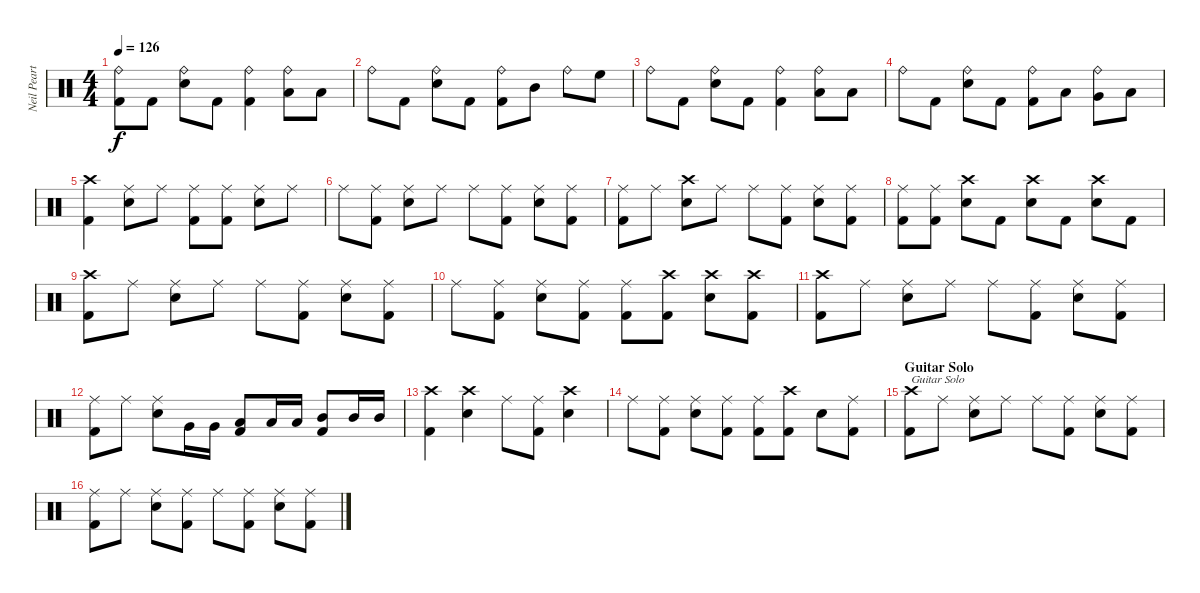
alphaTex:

\track ("Neil Peart" "Neil Peart") {instrument percussion}
\staff {score}
\articulation defaults
\ts (4 4)
\tempo 126
\clef neutral
\ks c
("Ride (bell)" "Kick (hit) 2").8{dy f} "Kick (hit) 2".8 ("Electric Snare (hit)" "Ride (bell)").8 "Kick (hit) 2".8 ("Ride (bell)" "Kick (hit) 2").4 ("Ride (bell)" "Low Floor Tom (hit)").8 "Low Floor Tom (hit)".8 |
"Ride (bell)".8 "Kick (hit) 2".8 ("Electric Snare (hit)" "Ride (bell)").8 "Kick (hit) 2".8 ("Ride (bell)" "Kick (hit) 2").8 "Mid Tom (hit)".8 "Ride (bell)".8 "High Floor Tom (hit)".8 |
"Ride (bell)".8 "Kick (hit) 2".8 ("Electric Snare (hit)" "Ride (bell)").8 "Kick (hit) 2".8 ("Ride (bell)" "Kick (hit) 2").4 ("Ride (bell)" "Low Floor Tom (hit)").8 "Low Floor Tom (hit)".8 |
"Ride (bell)".8 "Kick (hit) 2".8 ("Electric Snare (hit)" "Ride (bell)").8 "Kick (hit) 2".8 ("Ride (bell)" "Kick (hit) 2").8 "Low Floor Tom (hit)".8 ("Ride (bell)" "Very Low Tom (hit)").8 "Low Tom (hit)".8 |
("Crash high (hit)" "Kick (hit) 2").4 ("Electric Snare (hit)" "Ride (middle)").8 "Ride (middle)".8 ("Ride (middle)" "Kick (hit) 2").8 ("Ride (middle)" "Kick (hit) 2").8 ("Electric Snare (hit)" "Ride (middle)").8 "Ride (middle)".8 |
"Ride (middle)".8 ("Ride (middle)" "Kick (hit) 2").8 ("Electric Snare (hit)" "Ride (middle)").8 "Ride (middle)".8 "Ride (middle)".8 ("Ride (middle)" "Kick (hit) 2").8 ("Electric Snare (hit)" "Ride (middle)").8 ("Ride (middle)" "Kick (hit) 2").8 |
("Ride (middle)" "Kick (hit) 2").8 "Ride (middle)".8 ("Electric Snare (hit)" "Crash high (hit)").8 "Ride (middle)".8 "Ride (middle)".8 ("Ride (middle)" "Kick (hit) 2").8 ("Electric Snare (hit)" "Ride (middle)").8 ("Ride (middle)" "Kick (hit) 2").8 |
("Ride (middle)" "Kick (hit) 2").8 ("Ride (middle)" "Kick (hit) 2").8 ("Electric Snare (hit)" "Crash high (hit)").8 "Kick (hit) 2".8 ("Electric Snare (hit)" "Crash high (hit)").8 "Kick (hit) 2".8 ("Electric Snare (hit)" "Crash high (hit)").8 "Kick (hit) 2".8 |
("Crash high (hit)" "Kick (hit) 2").8 "Ride (middle)".8 ("Electric Snare (hit)" "Ride (middle)").8 "Ride (middle)".8 "Ride (middle)".8 ("Ride (middle)" "Kick (hit) 2").8 ("Electric Snare (hit)" "Ride (middle)").8 ("Ride (middle)" "Kick (hit) 2").8 |
"Ride (middle)".8 ("Ride (middle)" "Kick (hit) 2").8 ("Electric Snare (hit)" "Ride (middle)").8 ("Ride (middle)" "Kick (hit) 2").8 ("Ride (middle)" "Kick (hit) 2").8 ("Crash high (hit)" "Kick (hit) 2").8 ("Electric Snare (hit)" "Crash high (hit)").8 ("Crash high (hit)" "Kick (hit) 2").8 |
("Crash high (hit)" "Kick (hit) 2").8 "Ride (middle)".8 ("Electric Snare (hit)" "Ride (middle)").8 "Ride (middle)".8 "Ride (middle)".8 ("Ride (middle)" "Kick (hit) 2").8 ("Electric Snare (hit)" "Ride (middle)").8 ("Ride (middle)" "Kick (hit) 2").8 |
("Ride (middle)" "Kick (hit) 2").8 "Ride (middle)".8 ("Electric Snare (hit)" "Ride (middle)").8 "Very Low Tom (hit)".16 "Very Low Tom (hit)".16 ("Kick (hit) 2" "Low Tom (hit)").8 "Low Tom (hit)".16 "Low Tom (hit)".16 ("Kick (hit) 2" "Mid Tom (hit)").8 "Mid Tom (hit)".16 "Mid Tom (hit)".16 |
("Crash high (hit)" "Kick (hit) 2").4 ("Electric Snare (hit)" "Crash high (hit)").4 "Ride (middle)".8 ("Ride (middle)" "Kick (hit) 2").8 ("Electric Snare (hit)" "Crash high (hit)").4 |
"Ride (middle)".8 ("Ride (middle)" "Kick (hit) 2").8 ("Electric Snare (hit)" "Ride (middle)").8 ("Ride (middle)" "Kick (hit) 2").8 ("Ride (middle)" "Kick (hit) 2").8 ("Crash high (hit)" "Kick (hit) 2").8 "Electric Snare (hit)".8 ("Ride (middle)" "Kick (hit) 2").8 |
\section ("" "Guitar Solo")
("Crash high (hit)" "Kick (hit) 2").8{txt "Guitar Solo"} "Ride (middle)".8 ("Electric Snare (hit)" "Ride (middle)").8 "Ride (middle)".8 "Ride (middle)".8 ("Ride (middle)" "Kick (hit) 2").8 ("Electric Snare (hit)" "Ride (middle)").8 ("Ride (middle)" "Kick (hit) 2").8 |
("Ride (middle)" "Kick (hit) 2").8 "Ride (middle)".8 ("Electric Snare (hit)" "Ride (middle)").8 ("Ride (middle)" "Kick (hit) 2").8 "Ride (middle)".8 ("Ride (middle)" "Kick (hit) 2").8 ("Electric Snare (hit)" "Ride (middle)").8 ("Ride (middle)" "Kick (hit) 2").8
